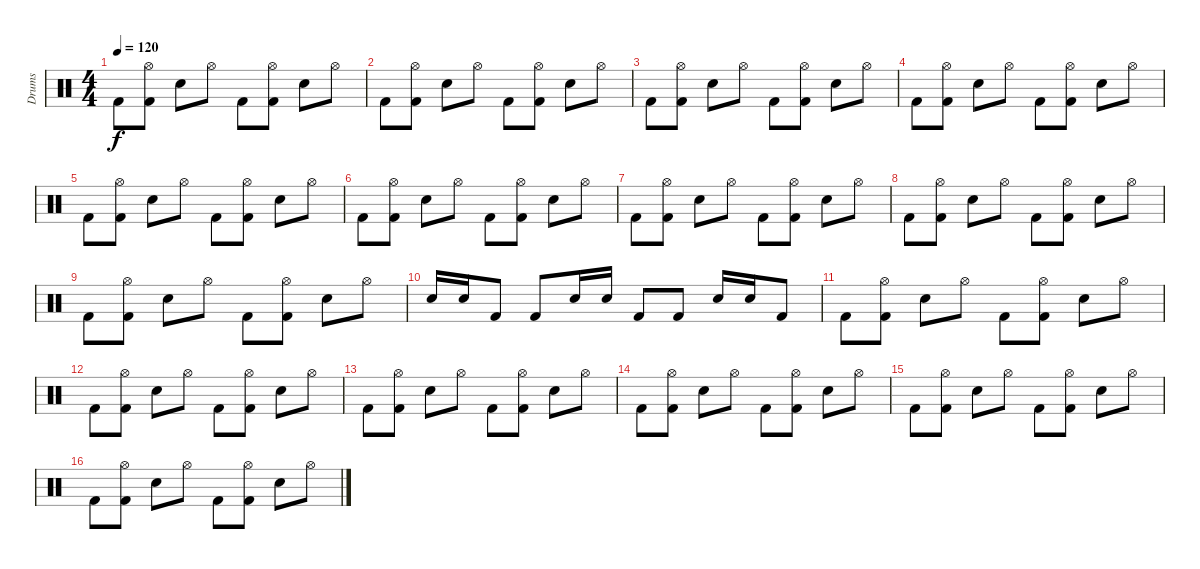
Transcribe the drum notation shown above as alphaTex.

\track ("Drums" "Drums") {instrument percussion}
\staff {score}
\articulation defaults
\ts (4 4)
\tempo 120
\clef neutral
\ks c "Kick (hit) 2".8{dy f}
("Hi-Hat (open)" "Kick (hit) 2").8 "Electric Snare (hit)".8 "Hi-Hat (open)".8 "Kick (hit) 2".8 ("Hi-Hat (open)" "Kick (hit) 2").8 "Electric Snare (hit)".8 "Hi-Hat (open)".8 |
"Kick (hit) 2".8 ("Hi-Hat (open)" "Kick (hit) 2").8 "Electric Snare (hit)".8 "Hi-Hat (open)".8 "Kick (hit) 2".8 ("Hi-Hat (open)" "Kick (hit) 2").8 "Electric Snare (hit)".8 "Hi-Hat (open)".8 |
"Kick (hit) 2".8 ("Hi-Hat (open)" "Kick (hit) 2").8 "Electric Snare (hit)".8 "Hi-Hat (open)".8 "Kick (hit) 2".8 ("Hi-Hat (open)" "Kick (hit) 2").8 "Electric Snare (hit)".8 "Hi-Hat (open)".8 |
"Kick (hit) 2".8 ("Hi-Hat (open)" "Kick (hit) 2").8 "Electric Snare (hit)".8 "Hi-Hat (open)".8 "Kick (hit) 2".8 ("Hi-Hat (open)" "Kick (hit) 2").8 "Electric Snare (hit)".8 "Hi-Hat (open)".8 |
"Kick (hit) 2".8 ("Hi-Hat (open)" "Kick (hit) 2").8 "Electric Snare (hit)".8 "Hi-Hat (open)".8 "Kick (hit) 2".8 ("Hi-Hat (open)" "Kick (hit) 2").8 "Electric Snare (hit)".8 "Hi-Hat (open)".8 |
"Kick (hit) 2".8 ("Hi-Hat (open)" "Kick (hit) 2").8 "Electric Snare (hit)".8 "Hi-Hat (open)".8 "Kick (hit) 2".8 ("Hi-Hat (open)" "Kick (hit) 2").8 "Electric Snare (hit)".8 "Hi-Hat (open)".8 |
"Kick (hit) 2".8 ("Hi-Hat (open)" "Kick (hit) 2").8 "Electric Snare (hit)".8 "Hi-Hat (open)".8 "Kick (hit) 2".8 ("Hi-Hat (open)" "Kick (hit) 2").8 "Electric Snare (hit)".8 "Hi-Hat (open)".8 |
"Kick (hit) 2".8 ("Hi-Hat (open)" "Kick (hit) 2").8 "Electric Snare (hit)".8 "Hi-Hat (open)".8 "Kick (hit) 2".8 ("Hi-Hat (open)" "Kick (hit) 2").8 "Electric Snare (hit)".8 "Hi-Hat (open)".8 |
"Kick (hit) 2".8 ("Hi-Hat (open)" "Kick (hit) 2").8 "Electric Snare (hit)".8 "Hi-Hat (open)".8 "Kick (hit) 2".8 ("Hi-Hat (open)" "Kick (hit) 2").8 "Electric Snare (hit)".8 "Hi-Hat (open)".8 |
"Electric Snare (hit)".16 "Electric Snare (hit)".16 "Kick (hit) 2".8 "Kick (hit) 2".8 "Electric Snare (hit)".16 "Electric Snare (hit)".16 "Kick (hit) 2".8 "Kick (hit) 2".8 "Electric Snare (hit)".16 "Electric Snare (hit)".16 "Kick (hit) 2".8 |
"Kick (hit) 2".8 ("Hi-Hat (open)" "Kick (hit) 2").8 "Electric Snare (hit)".8 "Hi-Hat (open)".8 "Kick (hit) 2".8 ("Hi-Hat (open)" "Kick (hit) 2").8 "Electric Snare (hit)".8 "Hi-Hat (open)".8 |
"Kick (hit) 2".8 ("Hi-Hat (open)" "Kick (hit) 2").8 "Electric Snare (hit)".8 "Hi-Hat (open)".8 "Kick (hit) 2".8 ("Hi-Hat (open)" "Kick (hit) 2").8 "Electric Snare (hit)".8 "Hi-Hat (open)".8 |
"Kick (hit) 2".8 ("Hi-Hat (open)" "Kick (hit) 2").8 "Electric Snare (hit)".8 "Hi-Hat (open)".8 "Kick (hit) 2".8 ("Hi-Hat (open)" "Kick (hit) 2").8 "Electric Snare (hit)".8 "Hi-Hat (open)".8 |
"Kick (hit) 2".8 ("Hi-Hat (open)" "Kick (hit) 2").8 "Electric Snare (hit)".8 "Hi-Hat (open)".8 "Kick (hit) 2".8 ("Hi-Hat (open)" "Kick (hit) 2").8 "Electric Snare (hit)".8 "Hi-Hat (open)".8 |
"Kick (hit) 2".8 ("Hi-Hat (open)" "Kick (hit) 2").8 "Electric Snare (hit)".8 "Hi-Hat (open)".8 "Kick (hit) 2".8 ("Hi-Hat (open)" "Kick (hit) 2").8 "Electric Snare (hit)".8 "Hi-Hat (open)".8 |
"Kick (hit) 2".8 ("Hi-Hat (open)" "Kick (hit) 2").8 "Electric Snare (hit)".8 "Hi-Hat (open)".8 "Kick (hit) 2".8 ("Hi-Hat (open)" "Kick (hit) 2").8 "Electric Snare (hit)".8 "Hi-Hat (open)".8
